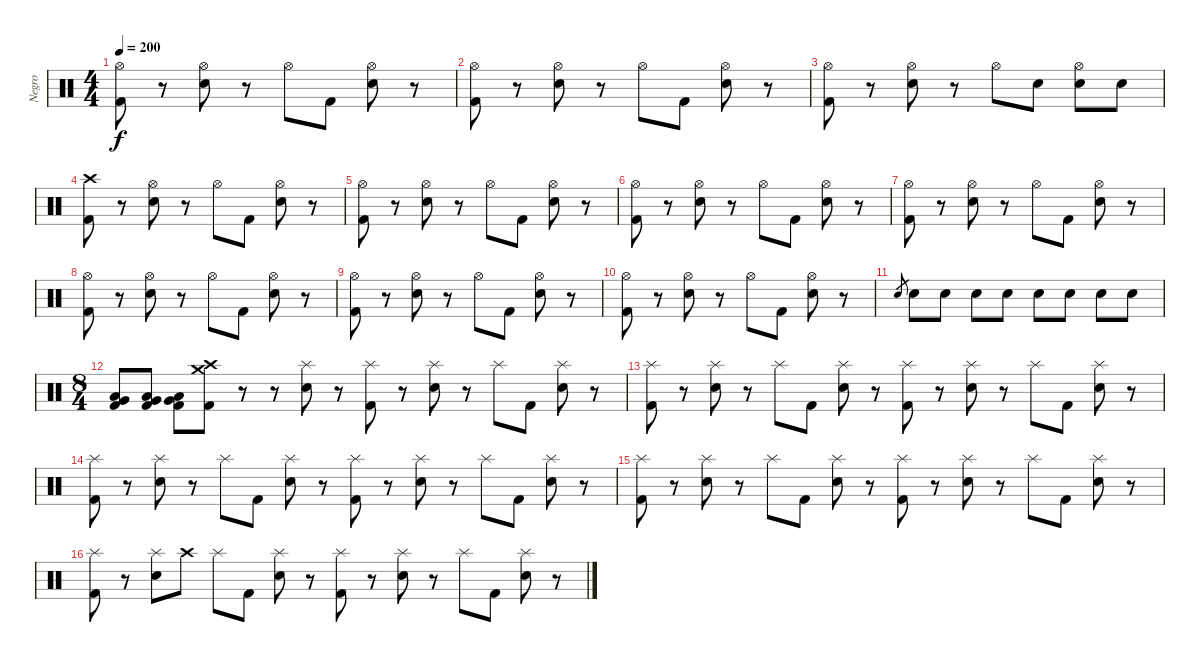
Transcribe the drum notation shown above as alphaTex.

\track ("Negro" "Negro") {instrument percussion}
\staff {score}
\articulation defaults
\ts (4 4)
\tempo 200
\clef neutral
\ks c
("Hi-Hat (open)" "Kick (hit) 2").8{dy f} r.8 ("Hi-Hat (open)" "Electric Snare (hit)").8 r.8 "Hi-Hat (open)".8 "Kick (hit) 2".8 ("Hi-Hat (open)" "Electric Snare (hit)").8 r.8 |
("Hi-Hat (open)" "Kick (hit) 2").8 r.8 ("Hi-Hat (open)" "Electric Snare (hit)").8 r.8 "Hi-Hat (open)".8 "Kick (hit) 2".8 ("Hi-Hat (open)" "Electric Snare (hit)").8 r.8 |
("Hi-Hat (open)" "Kick (hit) 2").8 r.8 ("Hi-Hat (open)" "Electric Snare (hit)").8 r.8 "Hi-Hat (open)".8 "Electric Snare (hit)".8 ("Hi-Hat (open)" "Electric Snare (hit)").8 "Electric Snare (hit)".8 |
("Crash high (hit)" "Kick (hit) 2").8 r.8 ("Hi-Hat (open)" "Electric Snare (hit)").8 r.8 "Hi-Hat (open)".8 "Kick (hit) 2".8 ("Hi-Hat (open)" "Electric Snare (hit)").8 r.8 |
("Hi-Hat (open)" "Kick (hit) 2").8 r.8 ("Hi-Hat (open)" "Electric Snare (hit)").8 r.8 "Hi-Hat (open)".8 "Kick (hit) 2".8 ("Hi-Hat (open)" "Electric Snare (hit)").8 r.8 |
("Hi-Hat (open)" "Kick (hit) 2").8 r.8 ("Hi-Hat (open)" "Electric Snare (hit)").8 r.8 "Hi-Hat (open)".8 "Kick (hit) 2".8 ("Hi-Hat (open)" "Electric Snare (hit)").8 r.8 |
("Hi-Hat (open)" "Kick (hit) 2").8 r.8 ("Hi-Hat (open)" "Electric Snare (hit)").8 r.8 "Hi-Hat (open)".8 "Kick (hit) 2".8 ("Hi-Hat (open)" "Electric Snare (hit)").8 r.8 |
("Hi-Hat (open)" "Kick (hit) 2").8 r.8 ("Hi-Hat (open)" "Electric Snare (hit)").8 r.8 "Hi-Hat (open)".8 "Kick (hit) 2".8 ("Hi-Hat (open)" "Electric Snare (hit)").8 r.8 |
("Hi-Hat (open)" "Kick (hit) 2").8 r.8 ("Hi-Hat (open)" "Electric Snare (hit)").8 r.8 "Hi-Hat (open)".8 "Kick (hit) 2".8 ("Hi-Hat (open)" "Electric Snare (hit)").8 r.8 |
("Hi-Hat (open)" "Kick (hit) 2").8 r.8 ("Hi-Hat (open)" "Electric Snare (hit)").8 r.8 "Hi-Hat (open)".8 "Kick (hit) 2".8 ("Hi-Hat (open)" "Electric Snare (hit)").8 r.8 |
"Electric Snare (hit)".8{gr} "Electric Snare (hit)".8 "Electric Snare (hit)".8 "Electric Snare (hit)".8 "Electric Snare (hit)".8 "Electric Snare (hit)".8 "Electric Snare (hit)".8 "Electric Snare (hit)".8 "Electric Snare (hit)".8 |
\ts (8 4)
("Very Low Tom (hit)" "Low Floor Tom (hit)" "Kick (hit) 2").8 ("Very Low Tom (hit)" "Low Floor Tom (hit)" "Kick (hit) 2").8 ("Very Low Tom (hit)" "Low Floor Tom (hit)" "Kick (hit) 2").8 ("Kick (hit) 2" "Crash medium (hit)" "Crash high (hit)").8 r.8 r.8 ("Splash (hit)" "Electric Snare (hit)").8 r.8 ("Splash (hit)" "Kick (hit) 2").8 r.8 ("Splash (hit)" "Electric Snare (hit)").8 r.8 "Splash (hit)".8 "Kick (hit) 2".8 ("Splash (hit)" "Electric Snare (hit)").8 r.8 |
("Splash (hit)" "Kick (hit) 2").8 r.8 ("Splash (hit)" "Electric Snare (hit)").8 r.8 "Splash (hit)".8 "Kick (hit) 2".8 ("Splash (hit)" "Electric Snare (hit)").8 r.8 ("Splash (hit)" "Kick (hit) 2").8 r.8 ("Splash (hit)" "Electric Snare (hit)").8 r.8 "Splash (hit)".8 "Kick (hit) 2".8 ("Splash (hit)" "Electric Snare (hit)").8 r.8 |
("Splash (hit)" "Kick (hit) 2").8 r.8 ("Splash (hit)" "Electric Snare (hit)").8 r.8 "Splash (hit)".8 "Kick (hit) 2".8 ("Splash (hit)" "Electric Snare (hit)").8 r.8 ("Splash (hit)" "Kick (hit) 2").8 r.8 ("Splash (hit)" "Electric Snare (hit)").8 r.8 "Splash (hit)".8 "Kick (hit) 2".8 ("Splash (hit)" "Electric Snare (hit)").8 r.8 |
("Splash (hit)" "Kick (hit) 2").8 r.8 ("Splash (hit)" "Electric Snare (hit)").8 r.8 "Splash (hit)".8 "Kick (hit) 2".8 ("Splash (hit)" "Electric Snare (hit)").8 r.8 ("Splash (hit)" "Kick (hit) 2").8 r.8 ("Splash (hit)" "Electric Snare (hit)").8 r.8 "Splash (hit)".8 "Kick (hit) 2".8 ("Splash (hit)" "Electric Snare (hit)").8 r.8 |
("Splash (hit)" "Kick (hit) 2").8 r.8 ("Splash (hit)" "Electric Snare (hit)").8 "Crash high (hit)".8 "Splash (hit)".8 "Kick (hit) 2".8 ("Splash (hit)" "Electric Snare (hit)").8 r.8 ("Splash (hit)" "Kick (hit) 2").8 r.8 ("Splash (hit)" "Electric Snare (hit)").8 r.8 "Splash (hit)".8 "Kick (hit) 2".8 ("Splash (hit)" "Electric Snare (hit)").8 r.8
